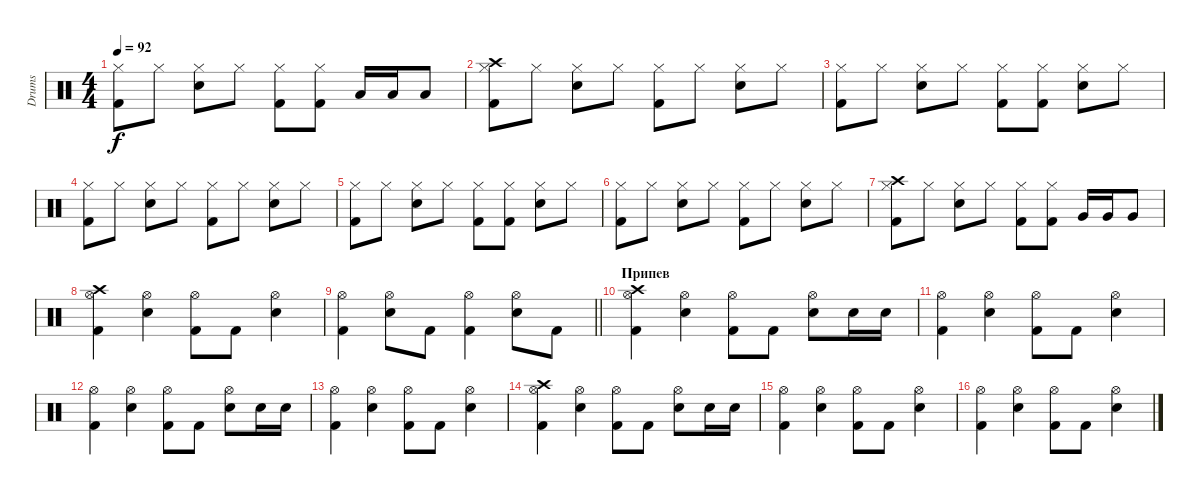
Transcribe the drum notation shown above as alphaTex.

\track ("Drums" "Drums") {instrument percussion}
\staff {score}
\articulation defaults
\ts (4 4)
\tempo 92
\clef neutral
\ks c
("Kick (hit) 2" "Hi-Hat (closed)").8{dy f} "Hi-Hat (closed)".8 ("Electric Snare (hit)" "Hi-Hat (closed)").8 "Hi-Hat (closed)".8 ("Kick (hit) 2" "Hi-Hat (closed)").8 ("Kick (hit) 2" "Hi-Hat (closed)").8 "Low Tom (hit)".16 "Low Tom (hit)".16 "Low Tom (hit)".8 |
("Kick (hit) 2" "Hi-Hat (closed)" "Crash high (hit)").8 "Hi-Hat (closed)".8 ("Electric Snare (hit)" "Hi-Hat (closed)").8 "Hi-Hat (closed)".8 ("Kick (hit) 2" "Hi-Hat (closed)").8 "Hi-Hat (closed)".8 ("Electric Snare (hit)" "Hi-Hat (closed)").8 "Hi-Hat (closed)".8 |
("Kick (hit) 2" "Hi-Hat (closed)").8 "Hi-Hat (closed)".8 ("Electric Snare (hit)" "Hi-Hat (closed)").8 "Hi-Hat (closed)".8 ("Kick (hit) 2" "Hi-Hat (closed)").8 ("Kick (hit) 2" "Hi-Hat (closed)").8 ("Electric Snare (hit)" "Hi-Hat (closed)").8 "Hi-Hat (closed)".8 |
("Kick (hit) 2" "Hi-Hat (closed)").8 "Hi-Hat (closed)".8 ("Electric Snare (hit)" "Hi-Hat (closed)").8 "Hi-Hat (closed)".8 ("Kick (hit) 2" "Hi-Hat (closed)").8 "Hi-Hat (closed)".8 ("Electric Snare (hit)" "Hi-Hat (closed)").8 "Hi-Hat (closed)".8 |
("Kick (hit) 2" "Hi-Hat (closed)").8 "Hi-Hat (closed)".8 ("Electric Snare (hit)" "Hi-Hat (closed)").8 "Hi-Hat (closed)".8 ("Kick (hit) 2" "Hi-Hat (closed)").8 ("Kick (hit) 2" "Hi-Hat (closed)").8 ("Electric Snare (hit)" "Hi-Hat (closed)").8 "Hi-Hat (closed)".8 |
("Kick (hit) 2" "Hi-Hat (closed)").8 "Hi-Hat (closed)".8 ("Electric Snare (hit)" "Hi-Hat (closed)").8 "Hi-Hat (closed)".8 ("Kick (hit) 2" "Hi-Hat (closed)").8 "Hi-Hat (closed)".8 ("Electric Snare (hit)" "Hi-Hat (closed)").8 "Hi-Hat (closed)".8 |
("Kick (hit) 2" "Hi-Hat (closed)" "Crash high (hit)").8 "Hi-Hat (closed)".8 ("Electric Snare (hit)" "Hi-Hat (closed)").8 "Hi-Hat (closed)".8 ("Kick (hit) 2" "Hi-Hat (closed)").8 ("Kick (hit) 2" "Hi-Hat (closed)").8 "Very Low Tom (hit)".16 "Very Low Tom (hit)".16 "Very Low Tom (hit)".8 |
("Kick (hit) 2" "Hi-Hat (open)" "Crash high (hit)").4 ("Electric Snare (hit)" "Hi-Hat (open)").4 ("Kick (hit) 2" "Hi-Hat (open)").8 "Kick (hit) 2".8 ("Electric Snare (hit)" "Hi-Hat (open)").4 |
\barLineRight lightlight
("Kick (hit) 2" "Hi-Hat (open)").4 ("Electric Snare (hit)" "Hi-Hat (open)").8 "Kick (hit) 2".8 ("Kick (hit) 2" "Hi-Hat (open)").4 ("Electric Snare (hit)" "Hi-Hat (open)").8 "Kick (hit) 2".8 |
\section ("" "Припев")
("Kick (hit) 2" "Hi-Hat (open)" "Crash high (hit)").4 ("Electric Snare (hit)" "Hi-Hat (open)").4 ("Kick (hit) 2" "Hi-Hat (open)").8 "Kick (hit) 2".8 ("Electric Snare (hit)" "Hi-Hat (open)").8 "Electric Snare (hit)".16 "Electric Snare (hit)".16 |
("Kick (hit) 2" "Hi-Hat (open)").4 ("Electric Snare (hit)" "Hi-Hat (open)").4 ("Kick (hit) 2" "Hi-Hat (open)").8 "Kick (hit) 2".8 ("Electric Snare (hit)" "Hi-Hat (open)").4 |
("Kick (hit) 2" "Hi-Hat (open)").4 ("Electric Snare (hit)" "Hi-Hat (open)").4 ("Kick (hit) 2" "Hi-Hat (open)").8 "Kick (hit) 2".8 ("Electric Snare (hit)" "Hi-Hat (open)").8 "Electric Snare (hit)".16 "Electric Snare (hit)".16 |
("Kick (hit) 2" "Hi-Hat (open)").4 ("Electric Snare (hit)" "Hi-Hat (open)").4 ("Kick (hit) 2" "Hi-Hat (open)").8 "Kick (hit) 2".8 ("Electric Snare (hit)" "Hi-Hat (open)").4 |
("Kick (hit) 2" "Hi-Hat (open)" "Crash high (hit)").4 ("Electric Snare (hit)" "Hi-Hat (open)").4 ("Kick (hit) 2" "Hi-Hat (open)").8 "Kick (hit) 2".8 ("Electric Snare (hit)" "Hi-Hat (open)").8 "Electric Snare (hit)".16 "Electric Snare (hit)".16 |
("Kick (hit) 2" "Hi-Hat (open)").4 ("Electric Snare (hit)" "Hi-Hat (open)").4 ("Kick (hit) 2" "Hi-Hat (open)").8 "Kick (hit) 2".8 ("Electric Snare (hit)" "Hi-Hat (open)").4 |
("Kick (hit) 2" "Hi-Hat (open)").4 ("Electric Snare (hit)" "Hi-Hat (open)").4 ("Kick (hit) 2" "Hi-Hat (open)").8 "Kick (hit) 2".8 ("Electric Snare (hit)" "Hi-Hat (open)").4
